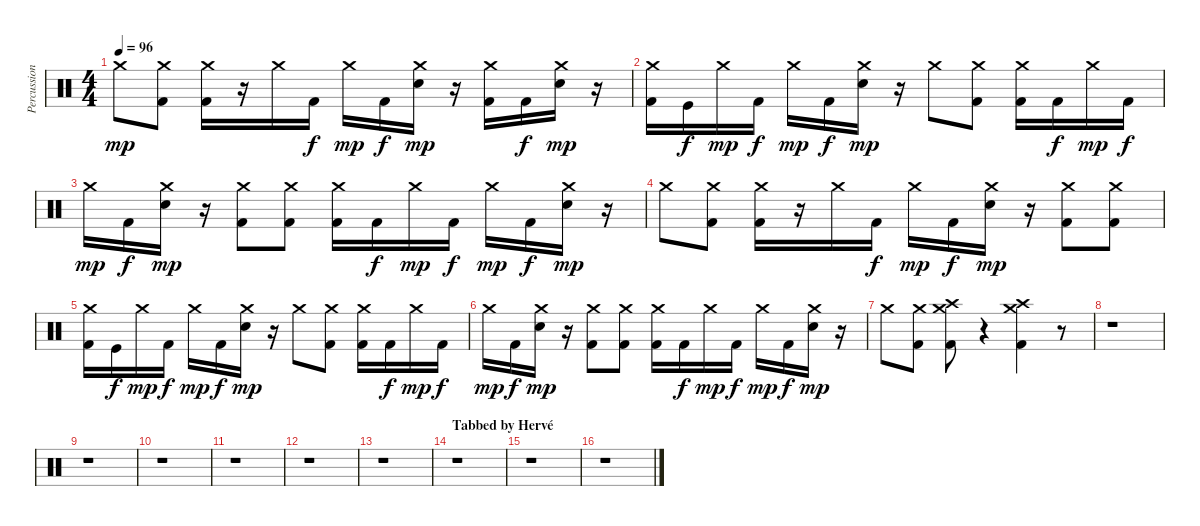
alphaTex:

\track ("Percussions" "Percussion") {instrument percussion}
\staff {score}
\articulation defaults
\ts (4 4)
\tempo 96
\clef neutral
\ks c "Crash medium (hit)".8{dy mp}
("Crash medium (hit)" "Kick (hit) 2").8 ("Crash medium (hit)" "Kick (hit) 2").16 r.16 "Crash medium (hit)".16 "Kick (hit) 2".16{dy f} "Crash medium (hit)".16{dy mp} "Kick (hit) 2".16{dy f} ("Crash medium (hit)" "Snare (hit) 2").16{dy mp} r.16 ("Crash medium (hit)" "Kick (hit) 2").16 "Kick (hit) 2".16{dy f} ("Crash medium (hit)" "Snare (hit) 2").16{dy mp} r.16 |
("Crash medium (hit)" "Kick (hit) 2").16 "Kick (hit)".16{dy f} "Crash medium (hit)".16{dy mp} "Kick (hit) 2".16{dy f} "Crash medium (hit)".16{dy mp} "Kick (hit) 2".16{dy f} ("Crash medium (hit)" "Snare (hit) 2").16{dy mp} r.16 "Crash medium (hit)".8 ("Crash medium (hit)" "Kick (hit) 2").8 ("Crash medium (hit)" "Kick (hit) 2").16 "Kick (hit) 2".16{dy f} "Crash medium (hit)".16{dy mp} "Kick (hit) 2".16{dy f} |
"Crash medium (hit)".16{dy mp} "Kick (hit) 2".16{dy f} ("Crash medium (hit)" "Snare (hit) 2").16{dy mp} r.16 ("Crash medium (hit)" "Kick (hit) 2").8 ("Crash medium (hit)" "Kick (hit) 2").8 ("Crash medium (hit)" "Kick (hit) 2").16 "Kick (hit) 2".16{dy f} "Crash medium (hit)".16{dy mp} "Kick (hit) 2".16{dy f} "Crash medium (hit)".16{dy mp} "Kick (hit) 2".16{dy f} ("Crash medium (hit)" "Snare (hit) 2").16{dy mp} r.16 |
"Crash medium (hit)".8 ("Crash medium (hit)" "Kick (hit) 2").8 ("Crash medium (hit)" "Kick (hit) 2").16 r.16 "Crash medium (hit)".16 "Kick (hit) 2".16{dy f} "Crash medium (hit)".16{dy mp} "Kick (hit) 2".16{dy f} ("Crash medium (hit)" "Snare (hit) 2").16{dy mp} r.16 ("Crash medium (hit)" "Kick (hit) 2").8 ("Crash medium (hit)" "Kick (hit) 2").8 |
("Crash medium (hit)" "Kick (hit) 2").16 "Kick (hit)".16{dy f} "Crash medium (hit)".16{dy mp} "Kick (hit) 2".16{dy f} "Crash medium (hit)".16{dy mp} "Kick (hit) 2".16{dy f} ("Crash medium (hit)" "Snare (hit) 2").16{dy mp} r.16 "Crash medium (hit)".8 ("Crash medium (hit)" "Kick (hit) 2").8 ("Crash medium (hit)" "Kick (hit) 2").16 "Kick (hit) 2".16{dy f} "Crash medium (hit)".16{dy mp} "Kick (hit) 2".16{dy f} |
"Crash medium (hit)".16{dy mp} "Kick (hit) 2".16{dy f} ("Crash medium (hit)" "Snare (hit) 2").16{dy mp} r.16 ("Crash medium (hit)" "Kick (hit) 2").8 ("Crash medium (hit)" "Kick (hit) 2").8 ("Crash medium (hit)" "Kick (hit) 2").16 "Kick (hit) 2".16{dy f} "Crash medium (hit)".16{dy mp} "Kick (hit) 2".16{dy f} "Crash medium (hit)".16{dy mp} "Kick (hit) 2".16{dy f} ("Crash medium (hit)" "Snare (hit) 2").16{dy mp} r.16 |
"Crash medium (hit)".8 ("Crash medium (hit)" "Kick (hit) 2").8 ("Crash medium (hit)" "Crash high (hit)" "Kick (hit) 2").8 r.4 ("Crash medium (hit)" "Crash high (hit)" "Kick (hit) 2").4 r.8 |
r.1 |
r.1 |
r.1 |
r.1 |
r.1 |
r.1 |
\section ("" "Tabbed by Hervé")
r.1 |
r.1 |
r.1
